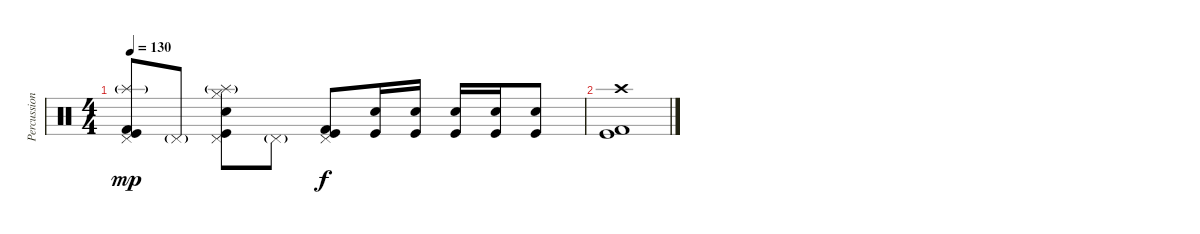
\track ("Percussion(Wendell Garcia)" "Percussion") {instrument percussion}
\staff {score}
\articulation defaults
\ts (4 4)
\tempo 130
\clef neutral
\ks c
("Pedal Hi-Hat (hit)" "Splash (hit)"{g} "Kick (hit)" "Kick (hit) 2").8{dy mp} "Pedal Hi-Hat (hit)"{g}.8 ("Electric Snare (hit)" "Splash (hit)"{g} "Pedal Hi-Hat (hit)" "Hi-Hat (closed)" "Kick (hit)").8 "Pedal Hi-Hat (hit)"{g}.8 ("Pedal Hi-Hat (hit)" "Kick (hit)" "Kick (hit) 2").8{dy f} ("Electric Snare (hit)" "Kick (hit)").16 ("Electric Snare (hit)" "Kick (hit)").16 ("Electric Snare (hit)" "Kick (hit)").16 ("Electric Snare (hit)" "Kick (hit)").16 ("Electric Snare (hit)" "Kick (hit)").8 |
("Crash high (hit)" "Kick (hit) 2" "Kick (hit)").1
